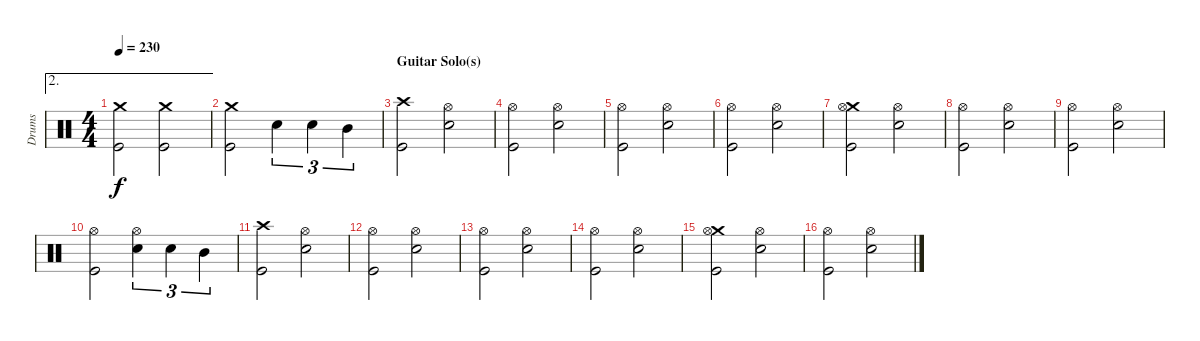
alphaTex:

\track ("Drums" "Drums") {instrument percussion}
\staff {score}
\articulation defaults
\ae 2
\ts (4 4)
\tempo 230
\clef neutral
\ks c
("Crash medium (hit)" "Kick (hit)").2{dy f} ("Crash medium (hit)" "Kick (hit)").2 |
("Crash medium (hit)" "Kick (hit)").2 "Electric Snare (hit)".4{tu (3 2)} "Electric Snare (hit)".4{tu (3 2)} "Mid Tom (hit)".4{tu (3 2)} |
\section ("" "Guitar Solo(s)")
("Crash high (hit)" "Kick (hit)").2 ("Hi-Hat (open)" "Electric Snare (hit)").2 |
("Hi-Hat (open)" "Kick (hit)").2 ("Hi-Hat (open)" "Electric Snare (hit)").2 |
("Hi-Hat (open)" "Kick (hit)").2 ("Hi-Hat (open)" "Electric Snare (hit)").2 |
("Hi-Hat (open)" "Kick (hit)").2 ("Hi-Hat (open)" "Electric Snare (hit)").2 |
("Crash medium (hit)" "Hi-Hat (open)" "Kick (hit)").2 ("Hi-Hat (open)" "Electric Snare (hit)").2 |
("Hi-Hat (open)" "Kick (hit)").2 ("Hi-Hat (open)" "Electric Snare (hit)").2 |
("Hi-Hat (open)" "Kick (hit)").2 ("Hi-Hat (open)" "Electric Snare (hit)").2 |
("Hi-Hat (open)" "Kick (hit)").2 ("Hi-Hat (open)" "Electric Snare (hit)").4{tu (3 2)} "Electric Snare (hit)".4{tu (3 2)} "Mid Tom (hit)".4{tu (3 2)} |
("Crash high (hit)" "Kick (hit)").2 ("Hi-Hat (open)" "Electric Snare (hit)").2 |
("Hi-Hat (open)" "Kick (hit)").2 ("Hi-Hat (open)" "Electric Snare (hit)").2 |
("Hi-Hat (open)" "Kick (hit)").2 ("Hi-Hat (open)" "Electric Snare (hit)").2 |
("Hi-Hat (open)" "Kick (hit)").2 ("Hi-Hat (open)" "Electric Snare (hit)").2 |
("Crash medium (hit)" "Hi-Hat (open)" "Kick (hit)").2 ("Hi-Hat (open)" "Electric Snare (hit)").2 |
("Hi-Hat (open)" "Kick (hit)").2 ("Hi-Hat (open)" "Electric Snare (hit)").2
